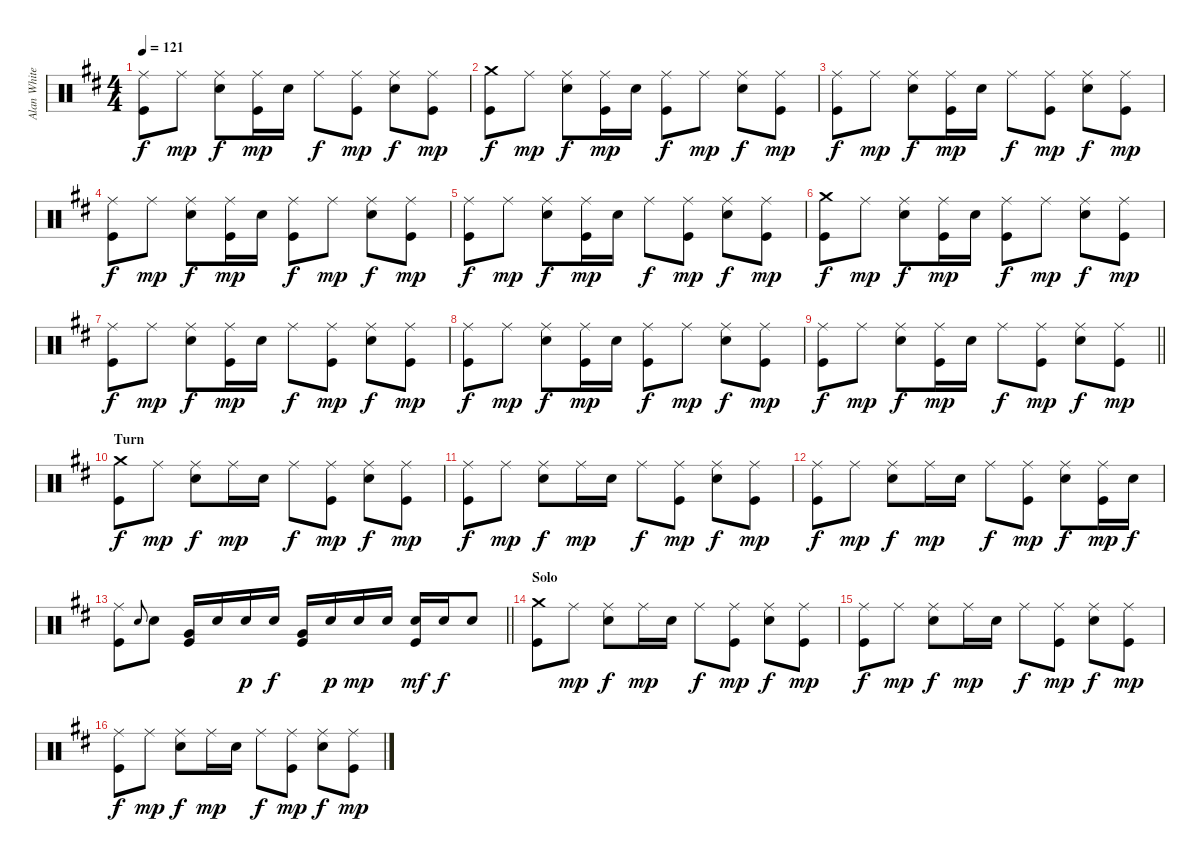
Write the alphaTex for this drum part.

\track ("Alan White" "Alan White") {instrument percussion}
\staff {score}
\articulation defaults
\ts (4 4)
\tempo 121
\clef neutral
\ks d
("Ride (middle)" "Kick (hit)").8{dy f} "Ride (middle)".8{dy mp} ("Ride (middle)" "Electric Snare (hit)").8{dy f} ("Ride (middle)" "Kick (hit)").16{dy mp} "Electric Snare (hit)".16 "Ride (middle)".8{dy f} ("Ride (middle)" "Kick (hit)").8{dy mp} ("Ride (middle)" "Electric Snare (hit)").8{dy f} ("Ride (middle)" "Kick (hit)").8{dy mp} |
("Crash medium (hit)" "Kick (hit)").8{dy f} "Ride (middle)".8{dy mp} ("Ride (middle)" "Electric Snare (hit)").8{dy f} ("Ride (middle)" "Kick (hit)").16{dy mp} "Electric Snare (hit)".16 ("Ride (middle)" "Kick (hit)").8{dy f} "Ride (middle)".8{dy mp} ("Ride (middle)" "Electric Snare (hit)").8{dy f} ("Ride (middle)" "Kick (hit)").8{dy mp} |
("Ride (middle)" "Kick (hit)").8{dy f} "Ride (middle)".8{dy mp} ("Ride (middle)" "Electric Snare (hit)").8{dy f} ("Ride (middle)" "Kick (hit)").16{dy mp} "Electric Snare (hit)".16 "Ride (middle)".8{dy f} ("Ride (middle)" "Kick (hit)").8{dy mp} ("Ride (middle)" "Electric Snare (hit)").8{dy f} ("Ride (middle)" "Kick (hit)").8{dy mp} |
("Ride (middle)" "Kick (hit)").8{dy f} "Ride (middle)".8{dy mp} ("Ride (middle)" "Electric Snare (hit)").8{dy f} ("Ride (middle)" "Kick (hit)").16{dy mp} "Electric Snare (hit)".16 ("Ride (middle)" "Kick (hit)").8{dy f} "Ride (middle)".8{dy mp} ("Ride (middle)" "Electric Snare (hit)").8{dy f} ("Ride (middle)" "Kick (hit)").8{dy mp} |
("Ride (middle)" "Kick (hit)").8{dy f} "Ride (middle)".8{dy mp} ("Ride (middle)" "Electric Snare (hit)").8{dy f} ("Ride (middle)" "Kick (hit)").16{dy mp} "Electric Snare (hit)".16 "Ride (middle)".8{dy f} ("Ride (middle)" "Kick (hit)").8{dy mp} ("Ride (middle)" "Electric Snare (hit)").8{dy f} ("Ride (middle)" "Kick (hit)").8{dy mp} |
("Crash medium (hit)" "Kick (hit)").8{dy f} "Ride (middle)".8{dy mp} ("Ride (middle)" "Electric Snare (hit)").8{dy f} ("Ride (middle)" "Kick (hit)").16{dy mp} "Electric Snare (hit)".16 ("Ride (middle)" "Kick (hit)").8{dy f} "Ride (middle)".8{dy mp} ("Ride (middle)" "Electric Snare (hit)").8{dy f} ("Ride (middle)" "Kick (hit)").8{dy mp} |
("Ride (middle)" "Kick (hit)").8{dy f} "Ride (middle)".8{dy mp} ("Ride (middle)" "Electric Snare (hit)").8{dy f} ("Ride (middle)" "Kick (hit)").16{dy mp} "Electric Snare (hit)".16 "Ride (middle)".8{dy f} ("Ride (middle)" "Kick (hit)").8{dy mp} ("Ride (middle)" "Electric Snare (hit)").8{dy f} ("Ride (middle)" "Kick (hit)").8{dy mp} |
("Ride (middle)" "Kick (hit)").8{dy f} "Ride (middle)".8{dy mp} ("Ride (middle)" "Electric Snare (hit)").8{dy f} ("Ride (middle)" "Kick (hit)").16{dy mp} "Electric Snare (hit)".16 ("Ride (middle)" "Kick (hit)").8{dy f} "Ride (middle)".8{dy mp} ("Ride (middle)" "Electric Snare (hit)").8{dy f} ("Ride (middle)" "Kick (hit)").8{dy mp} |
\barLineRight lightlight
("Ride (middle)" "Kick (hit)").8{dy f} "Ride (middle)".8{dy mp} ("Ride (middle)" "Electric Snare (hit)").8{dy f} ("Ride (middle)" "Kick (hit)").16{dy mp} "Electric Snare (hit)".16 "Ride (middle)".8{dy f} ("Ride (middle)" "Kick (hit)").8{dy mp} ("Ride (middle)" "Electric Snare (hit)").8{dy f} ("Ride (middle)" "Kick (hit)").8{dy mp} |
\section ("" "Turn")
("Crash medium (hit)" "Kick (hit)").8{dy f} "Ride (middle)".8{dy mp} ("Ride (middle)" "Electric Snare (hit)").8{dy f} "Ride (middle)".16{dy mp} "Electric Snare (hit)".16 "Ride (middle)".8{dy f} ("Ride (middle)" "Kick (hit)").8{dy mp} ("Ride (middle)" "Electric Snare (hit)").8{dy f} ("Ride (middle)" "Kick (hit)").8{dy mp} |
("Ride (middle)" "Kick (hit)").8{dy f} "Ride (middle)".8{dy mp} ("Ride (middle)" "Electric Snare (hit)").8{dy f} "Ride (middle)".16{dy mp} "Electric Snare (hit)".16 "Ride (middle)".8{dy f} ("Ride (middle)" "Kick (hit)").8{dy mp} ("Ride (middle)" "Electric Snare (hit)").8{dy f} ("Ride (middle)" "Kick (hit)").8{dy mp} |
("Ride (middle)" "Kick (hit)").8{dy f} "Ride (middle)".8{dy mp} ("Ride (middle)" "Electric Snare (hit)").8{dy f} "Ride (middle)".16{dy mp} "Electric Snare (hit)".16 "Ride (middle)".8{dy f} ("Ride (middle)" "Kick (hit)").8{dy mp} ("Ride (middle)" "Electric Snare (hit)").8{dy f} ("Ride (middle)" "Kick (hit)").16{dy mp} "Electric Snare (hit)".16{dy f} |
\barLineRight lightlight
("Ride (middle)" "Kick (hit)").8 "Electric Snare (hit)".8{gr onbeat} "Electric Snare (hit)".8 ("Very Low Tom (hit)" "Kick (hit)").16 "Electric Snare (hit)".16 "Electric Snare (hit)".16{dy p} "Electric Snare (hit)".16{dy f} ("Very Low Tom (hit)" "Kick (hit)").16 "Electric Snare (hit)".16{dy p} "Electric Snare (hit)".16{dy mp} "Electric Snare (hit)".16 ("Electric Snare (hit)" "Kick (hit)").16{dy mf} "Electric Snare (hit)".16{dy f} "Electric Snare (hit)".8 |
\section ("" "Solo")
("Crash medium (hit)" "Kick (hit)").8 "Ride (middle)".8{dy mp} ("Ride (middle)" "Electric Snare (hit)").8{dy f} "Ride (middle)".16{dy mp} "Electric Snare (hit)".16 "Ride (middle)".8{dy f} ("Ride (middle)" "Kick (hit)").8{dy mp} ("Ride (middle)" "Electric Snare (hit)").8{dy f} ("Ride (middle)" "Kick (hit)").8{dy mp} |
("Ride (middle)" "Kick (hit)").8{dy f} "Ride (middle)".8{dy mp} ("Ride (middle)" "Electric Snare (hit)").8{dy f} "Ride (middle)".16{dy mp} "Electric Snare (hit)".16 "Ride (middle)".8{dy f} ("Ride (middle)" "Kick (hit)").8{dy mp} ("Ride (middle)" "Electric Snare (hit)").8{dy f} ("Ride (middle)" "Kick (hit)").8{dy mp} |
("Ride (middle)" "Kick (hit)").8{dy f} "Ride (middle)".8{dy mp} ("Ride (middle)" "Electric Snare (hit)").8{dy f} "Ride (middle)".16{dy mp} "Electric Snare (hit)".16 "Ride (middle)".8{dy f} ("Ride (middle)" "Kick (hit)").8{dy mp} ("Ride (middle)" "Electric Snare (hit)").8{dy f} ("Ride (middle)" "Kick (hit)").8{dy mp}
